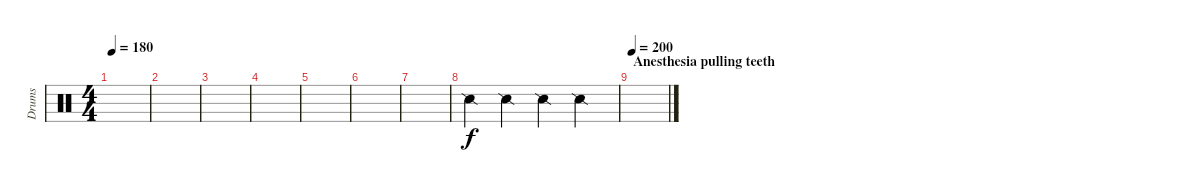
\track ("Drums" "Drums") {instrument percussion}
\staff {score}
\articulation defaults
\ts (4 4)
\tempo 180
\clef neutral
\ks c
|
|
|
|
|
|
|
"Snare (side stick) 2".4 "Snare (side stick) 2".4 "Snare (side stick) 2".4 "Snare (side stick) 2".4 |
\section ("" "Anesthesia pulling teeth")
\tempo 200
